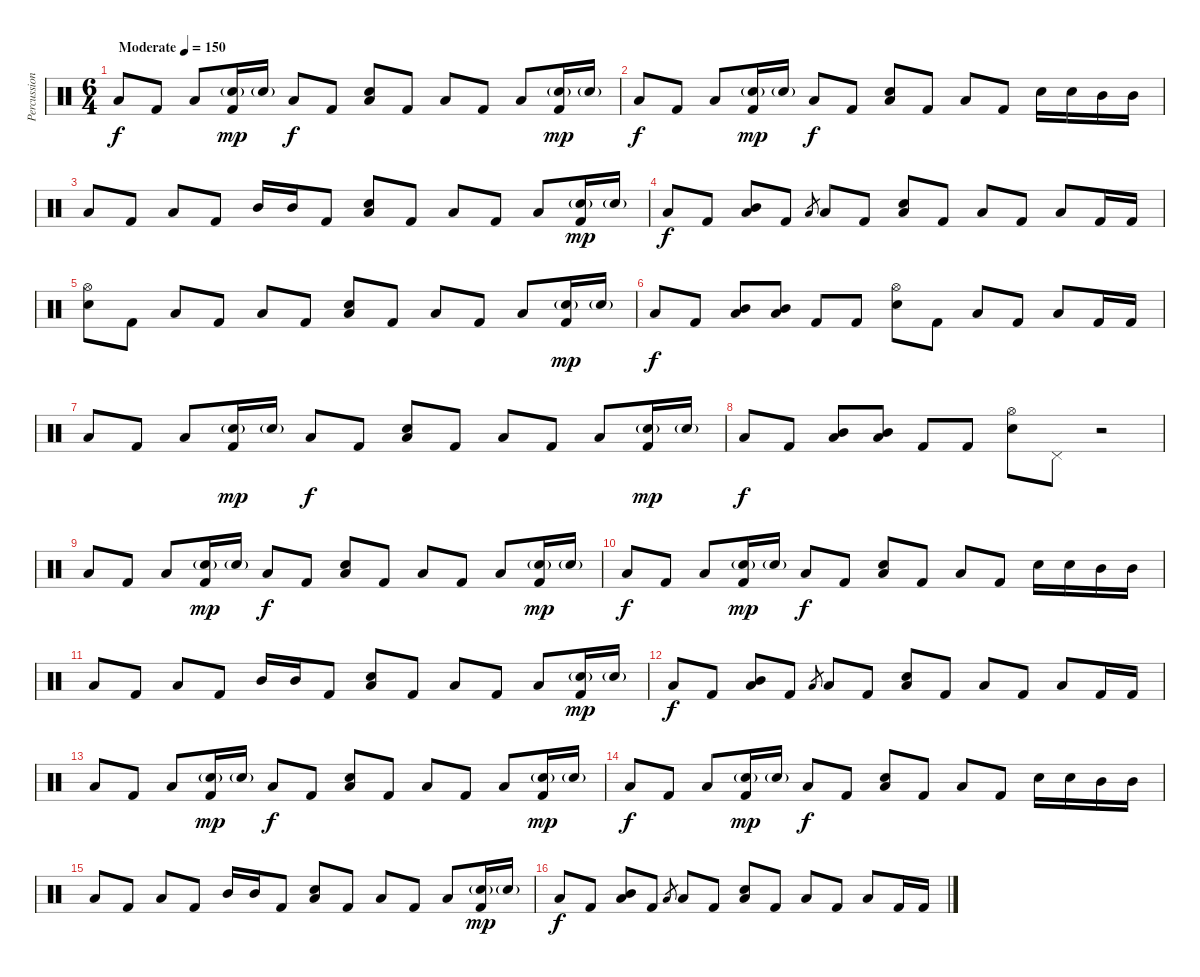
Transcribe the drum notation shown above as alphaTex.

\track ("Percussion" "Percussion") {instrument percussion}
\staff {score}
\articulation defaults
\ts (6 4)
\tempo (150 "Moderate")
\clef neutral
\ks c "Low Floor Tom (hit)".8{dy f} "Kick (hit) 2".8 "Low Floor Tom (hit)".8
("Electric Snare (hit)"{g} "Kick (hit) 2").16{dy mp} "Electric Snare (hit)"{g}.16 "Low Floor Tom (hit)".8{dy f} "Kick (hit) 2".8 ("Low Floor Tom (hit)" "Electric Snare (hit)").8 "Kick (hit) 2".8 "Low Floor Tom (hit)".8 "Kick (hit) 2".8 "Low Floor Tom (hit)".8 ("Electric Snare (hit)"{g} "Kick (hit) 2").16{dy mp} "Electric Snare (hit)"{g}.16 |
"Low Floor Tom (hit)".8{dy f} "Kick (hit) 2".8 "Low Floor Tom (hit)".8 ("Electric Snare (hit)"{g} "Kick (hit) 2").16{dy mp} "Electric Snare (hit)"{g}.16 "Low Floor Tom (hit)".8{dy f} "Kick (hit) 2".8 ("Low Floor Tom (hit)" "Electric Snare (hit)").8 "Kick (hit) 2".8 "Low Floor Tom (hit)".8 "Kick (hit) 2".8 "Electric Snare (hit)".16 "Electric Snare (hit)".16 "Mid Tom (hit)".16 "Mid Tom (hit)".16 |
"Low Floor Tom (hit)".8 "Kick (hit) 2".8 "Low Floor Tom (hit)".8 "Kick (hit) 2".8 "Mid Tom (hit)".16 "Mid Tom (hit)".16 "Kick (hit) 2".8 ("Low Floor Tom (hit)" "Electric Snare (hit)").8 "Kick (hit) 2".8 "Low Floor Tom (hit)".8 "Kick (hit) 2".8 "Low Floor Tom (hit)".8 ("Electric Snare (hit)"{g} "Kick (hit) 2").16{dy mp} "Electric Snare (hit)"{g}.16 |
"Low Floor Tom (hit)".8{dy f} "Kick (hit) 2".8 ("Low Floor Tom (hit)" "Mid Tom (hit)").8 "Kick (hit) 2".8 "Low Floor Tom (hit)".8{gr} "Low Floor Tom (hit)".8 "Kick (hit) 2".8 ("Low Floor Tom (hit)" "Electric Snare (hit)").8 "Kick (hit) 2".8 "Low Floor Tom (hit)".8 "Kick (hit) 2".8 "Low Floor Tom (hit)".8 "Kick (hit) 2".16 "Kick (hit) 2".16 |
("Hi-Hat (open)" "Electric Snare (hit)").8 "Kick (hit) 2".8 "Low Floor Tom (hit)".8 "Kick (hit) 2".8 "Low Floor Tom (hit)".8 "Kick (hit) 2".8 ("Low Floor Tom (hit)" "Electric Snare (hit)").8 "Kick (hit) 2".8 "Low Floor Tom (hit)".8 "Kick (hit) 2".8 "Low Floor Tom (hit)".8 ("Electric Snare (hit)"{g} "Kick (hit) 2").16{dy mp} "Electric Snare (hit)"{g}.16 |
"Low Floor Tom (hit)".8{dy f} "Kick (hit) 2".8 ("Low Floor Tom (hit)" "Mid Tom (hit)").8 ("Low Floor Tom (hit)" "Mid Tom (hit)").8 "Kick (hit) 2".8 "Kick (hit) 2".8 ("Hi-Hat (open)" "Electric Snare (hit)").8 "Kick (hit) 2".8 "Low Floor Tom (hit)".8 "Kick (hit) 2".8 "Low Floor Tom (hit)".8 "Kick (hit) 2".16 "Kick (hit) 2".16 |
"Low Floor Tom (hit)".8 "Kick (hit) 2".8 "Low Floor Tom (hit)".8 ("Electric Snare (hit)"{g} "Kick (hit) 2").16{dy mp} "Electric Snare (hit)"{g}.16 "Low Floor Tom (hit)".8{dy f} "Kick (hit) 2".8 ("Low Floor Tom (hit)" "Electric Snare (hit)").8 "Kick (hit) 2".8 "Low Floor Tom (hit)".8 "Kick (hit) 2".8 "Low Floor Tom (hit)".8 ("Electric Snare (hit)"{g} "Kick (hit) 2").16{dy mp} "Electric Snare (hit)"{g}.16 |
"Low Floor Tom (hit)".8{dy f} "Kick (hit) 2".8 ("Low Floor Tom (hit)" "Mid Tom (hit)").8 ("Low Floor Tom (hit)" "Mid Tom (hit)").8 "Kick (hit) 2".8 "Kick (hit) 2".8 ("Hi-Hat (open)" "Electric Snare (hit)").8 "Pedal Hi-Hat (hit)".8 r.2 |
"Low Floor Tom (hit)".8 "Kick (hit) 2".8 "Low Floor Tom (hit)".8 ("Electric Snare (hit)"{g} "Kick (hit) 2").16{dy mp} "Electric Snare (hit)"{g}.16 "Low Floor Tom (hit)".8{dy f} "Kick (hit) 2".8 ("Low Floor Tom (hit)" "Electric Snare (hit)").8 "Kick (hit) 2".8 "Low Floor Tom (hit)".8 "Kick (hit) 2".8 "Low Floor Tom (hit)".8 ("Electric Snare (hit)"{g} "Kick (hit) 2").16{dy mp} "Electric Snare (hit)"{g}.16 |
"Low Floor Tom (hit)".8{dy f} "Kick (hit) 2".8 "Low Floor Tom (hit)".8 ("Electric Snare (hit)"{g} "Kick (hit) 2").16{dy mp} "Electric Snare (hit)"{g}.16 "Low Floor Tom (hit)".8{dy f} "Kick (hit) 2".8 ("Low Floor Tom (hit)" "Electric Snare (hit)").8 "Kick (hit) 2".8 "Low Floor Tom (hit)".8 "Kick (hit) 2".8 "Electric Snare (hit)".16 "Electric Snare (hit)".16 "Mid Tom (hit)".16 "Mid Tom (hit)".16 |
"Low Floor Tom (hit)".8 "Kick (hit) 2".8 "Low Floor Tom (hit)".8 "Kick (hit) 2".8 "Mid Tom (hit)".16 "Mid Tom (hit)".16 "Kick (hit) 2".8 ("Low Floor Tom (hit)" "Electric Snare (hit)").8 "Kick (hit) 2".8 "Low Floor Tom (hit)".8 "Kick (hit) 2".8 "Low Floor Tom (hit)".8 ("Electric Snare (hit)"{g} "Kick (hit) 2").16{dy mp} "Electric Snare (hit)"{g}.16 |
"Low Floor Tom (hit)".8{dy f} "Kick (hit) 2".8 ("Low Floor Tom (hit)" "Mid Tom (hit)").8 "Kick (hit) 2".8 "Low Floor Tom (hit)".8{gr} "Low Floor Tom (hit)".8 "Kick (hit) 2".8 ("Low Floor Tom (hit)" "Electric Snare (hit)").8 "Kick (hit) 2".8 "Low Floor Tom (hit)".8 "Kick (hit) 2".8 "Low Floor Tom (hit)".8 "Kick (hit) 2".16 "Kick (hit) 2".16 |
"Low Floor Tom (hit)".8 "Kick (hit) 2".8 "Low Floor Tom (hit)".8 ("Electric Snare (hit)"{g} "Kick (hit) 2").16{dy mp} "Electric Snare (hit)"{g}.16 "Low Floor Tom (hit)".8{dy f} "Kick (hit) 2".8 ("Low Floor Tom (hit)" "Electric Snare (hit)").8 "Kick (hit) 2".8 "Low Floor Tom (hit)".8 "Kick (hit) 2".8 "Low Floor Tom (hit)".8 ("Electric Snare (hit)"{g} "Kick (hit) 2").16{dy mp} "Electric Snare (hit)"{g}.16 |
"Low Floor Tom (hit)".8{dy f} "Kick (hit) 2".8 "Low Floor Tom (hit)".8 ("Electric Snare (hit)"{g} "Kick (hit) 2").16{dy mp} "Electric Snare (hit)"{g}.16 "Low Floor Tom (hit)".8{dy f} "Kick (hit) 2".8 ("Low Floor Tom (hit)" "Electric Snare (hit)").8 "Kick (hit) 2".8 "Low Floor Tom (hit)".8 "Kick (hit) 2".8 "Electric Snare (hit)".16 "Electric Snare (hit)".16 "Mid Tom (hit)".16 "Mid Tom (hit)".16 |
"Low Floor Tom (hit)".8 "Kick (hit) 2".8 "Low Floor Tom (hit)".8 "Kick (hit) 2".8 "Mid Tom (hit)".16 "Mid Tom (hit)".16 "Kick (hit) 2".8 ("Low Floor Tom (hit)" "Electric Snare (hit)").8 "Kick (hit) 2".8 "Low Floor Tom (hit)".8 "Kick (hit) 2".8 "Low Floor Tom (hit)".8 ("Electric Snare (hit)"{g} "Kick (hit) 2").16{dy mp} "Electric Snare (hit)"{g}.16 |
"Low Floor Tom (hit)".8{dy f} "Kick (hit) 2".8 ("Low Floor Tom (hit)" "Mid Tom (hit)").8 "Kick (hit) 2".8 "Low Floor Tom (hit)".8{gr} "Low Floor Tom (hit)".8 "Kick (hit) 2".8 ("Low Floor Tom (hit)" "Electric Snare (hit)").8 "Kick (hit) 2".8 "Low Floor Tom (hit)".8 "Kick (hit) 2".8 "Low Floor Tom (hit)".8 "Kick (hit) 2".16 "Kick (hit) 2".16
